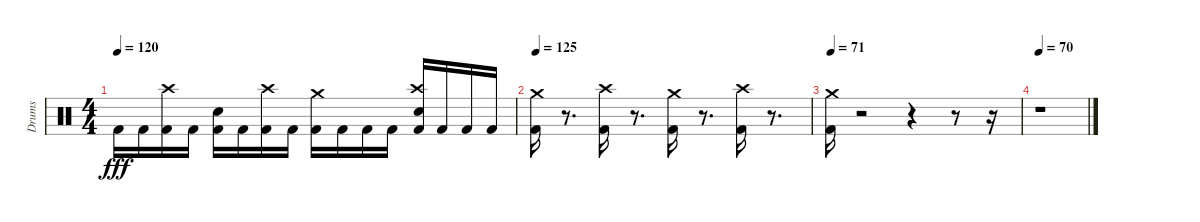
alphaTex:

\track ("Drums" "Drums") {instrument percussion}
\staff {score}
\articulation defaults
\ts (4 4)
\tempo 120
\clef neutral
\ks c "Kick (hit) 2".16{dy fff} "Kick (hit) 2".16
("Kick (hit) 2" "Crash high (hit)").16 "Kick (hit) 2".16 ("Kick (hit) 2" "Electric Snare (hit)").16 "Kick (hit) 2".16 ("Kick (hit) 2" "Crash high (hit)").16 "Kick (hit) 2".16 ("Kick (hit) 2" "Crash medium (hit)").16 "Kick (hit) 2".16 "Kick (hit) 2".16 "Kick (hit) 2".16 ("Electric Snare (hit)" "Kick (hit) 2" "Crash high (hit)").16 "Kick (hit) 2".16 "Kick (hit) 2".16 "Kick (hit) 2".16 |
\tempo 125
("Kick (hit) 2" "Crash medium (hit)").16 r.8{d} ("Kick (hit) 2" "Crash high (hit)").16 r.8{d} ("Kick (hit) 2" "Crash medium (hit)").16 r.8{d} ("Kick (hit) 2" "Crash high (hit)").16 r.8{d} |
\tempo 71
("Kick (hit) 2" "Crash medium (hit)").16 r.2 r.4 r.8 r.16 |
\tempo 70
r.1
